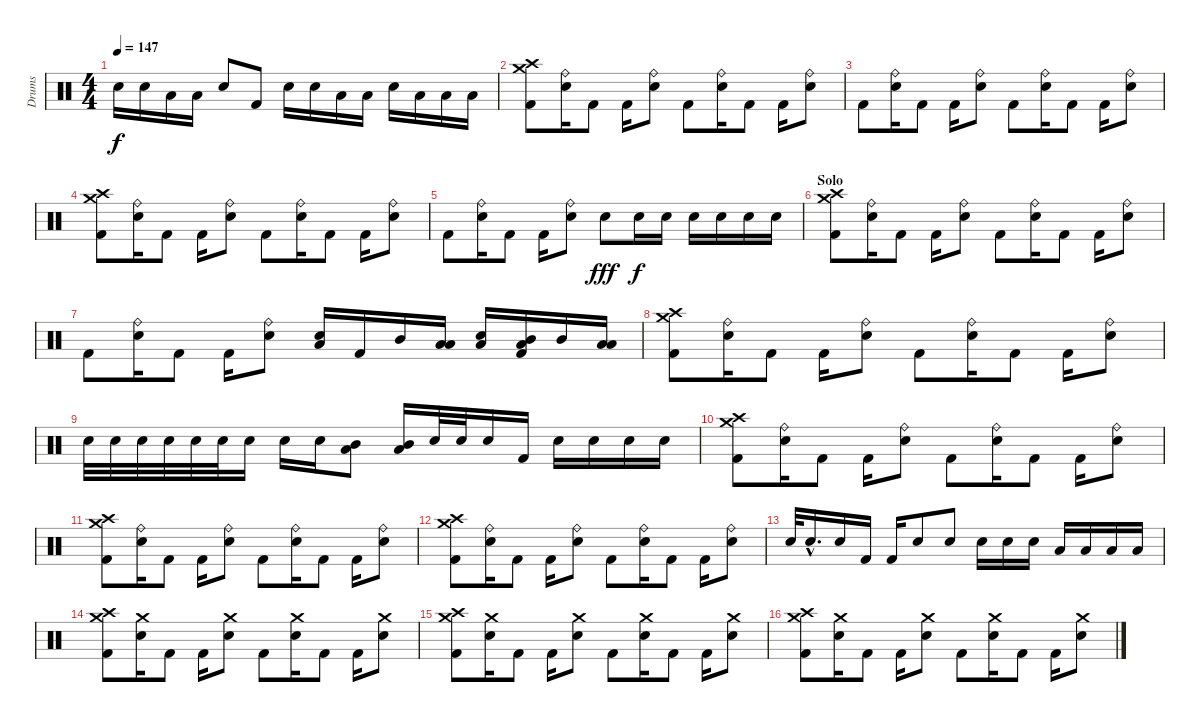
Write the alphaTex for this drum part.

\track ("Drums" "Drums") {instrument percussion}
\staff {score}
\articulation defaults
\ts (4 4)
\tempo 147
\clef neutral
\ks c "Electric Snare (hit)".16{dy f} "Electric Snare (hit)".16 "Low Tom (hit)".16 "Low Tom (hit)".16 "Electric Snare (hit)".8 "Kick (hit) 2".8 "Electric Snare (hit)".16 "Electric Snare (hit)".16 "Low Tom (hit)".16 "Low Tom (hit)".16 "Electric Snare (hit)".16 "Low Tom (hit)".16 "Low Tom (hit)".16 "Low Tom (hit)".16
|
("Crash high (hit)" "Crash medium (hit)" "Kick (hit) 2").8 ("Ride (bell)" "Electric Snare (hit)").16 "Kick (hit) 2".8 "Kick (hit) 2".16 ("Ride (bell)" "Electric Snare (hit)").8 "Kick (hit) 2".8 ("Ride (bell)" "Electric Snare (hit)").16 "Kick (hit) 2".8 "Kick (hit) 2".16 ("Ride (bell)" "Electric Snare (hit)").8 |
"Kick (hit) 2".8 ("Ride (bell)" "Electric Snare (hit)").16 "Kick (hit) 2".8 "Kick (hit) 2".16 ("Ride (bell)" "Electric Snare (hit)").8 "Kick (hit) 2".8 ("Ride (bell)" "Electric Snare (hit)").16 "Kick (hit) 2".8 "Kick (hit) 2".16 ("Ride (bell)" "Electric Snare (hit)").8 |
("Crash high (hit)" "Crash medium (hit)" "Kick (hit) 2").8 ("Ride (bell)" "Electric Snare (hit)").16 "Kick (hit) 2".8 "Kick (hit) 2".16 ("Ride (bell)" "Electric Snare (hit)").8 "Kick (hit) 2".8 ("Ride (bell)" "Electric Snare (hit)").16 "Kick (hit) 2".8 "Kick (hit) 2".16 ("Ride (bell)" "Electric Snare (hit)").8 |
"Kick (hit) 2".8 ("Ride (bell)" "Electric Snare (hit)").16 "Kick (hit) 2".8 "Kick (hit) 2".16 ("Ride (bell)" "Electric Snare (hit)").8 "Electric Snare (hit)".8{dy fff} "Electric Snare (hit)".16{dy f} "Electric Snare (hit)".16 "Electric Snare (hit)".16 "Electric Snare (hit)".16 "Electric Snare (hit)".16 "Electric Snare (hit)".16 |
\section ("" "Solo")
("Crash high (hit)" "Crash medium (hit)" "Kick (hit) 2").8 ("Ride (bell)" "Electric Snare (hit)").16 "Kick (hit) 2".8 "Kick (hit) 2".16 ("Ride (bell)" "Electric Snare (hit)").8 "Kick (hit) 2".8 ("Ride (bell)" "Electric Snare (hit)").16 "Kick (hit) 2".8 "Kick (hit) 2".16 ("Ride (bell)" "Electric Snare (hit)").8 |
"Kick (hit) 2".8 ("Ride (bell)" "Electric Snare (hit)").16 "Kick (hit) 2".8 "Kick (hit) 2".16 ("Ride (bell)" "Electric Snare (hit)").8 ("Low Floor Tom (hit)" "Electric Snare (hit)").16 "Kick (hit) 2".16 "Mid Tom (hit)".16 ("Low Floor Tom (hit)" "Low Tom (hit)").16 ("Low Floor Tom (hit)" "Electric Snare (hit)").16 ("Low Floor Tom (hit)" "Mid Tom (hit)" "Kick (hit) 2").16 "Mid Tom (hit)".16 ("Low Floor Tom (hit)" "Low Tom (hit)").16 |
("Crash high (hit)" "Crash medium (hit)" "Kick (hit) 2").8 ("Ride (bell)" "Electric Snare (hit)").16 "Kick (hit) 2".8 "Kick (hit) 2".16 ("Ride (bell)" "Electric Snare (hit)").8 "Kick (hit) 2".8 ("Ride (bell)" "Electric Snare (hit)").16 "Kick (hit) 2".8 "Kick (hit) 2".16 ("Ride (bell)" "Electric Snare (hit)").8 |
"Electric Snare (hit)".32 "Electric Snare (hit)".32 "Electric Snare (hit)".32 "Electric Snare (hit)".32 "Electric Snare (hit)".32 "Electric Snare (hit)".32 "Electric Snare (hit)".16 "Electric Snare (hit)".16 "Electric Snare (hit)".16 ("Low Floor Tom (hit)" "Mid Tom (hit)").8 ("Low Floor Tom (hit)" "Mid Tom (hit)").16 "Electric Snare (hit)".32 "Electric Snare (hit)".32 "Electric Snare (hit)".16 "Kick (hit) 2".16 "Electric Snare (hit)".16 "Electric Snare (hit)".16 "Electric Snare (hit)".16 "Electric Snare (hit)".16 |
("Crash high (hit)" "Crash medium (hit)" "Kick (hit) 2").8 ("Ride (bell)" "Electric Snare (hit)").16 "Kick (hit) 2".8 "Kick (hit) 2".16 ("Ride (bell)" "Electric Snare (hit)").8 "Kick (hit) 2".8 ("Ride (bell)" "Electric Snare (hit)").16 "Kick (hit) 2".8 "Kick (hit) 2".16 ("Ride (bell)" "Electric Snare (hit)").8 |
("Crash high (hit)" "Crash medium (hit)" "Kick (hit) 2").8 ("Ride (bell)" "Electric Snare (hit)").16 "Kick (hit) 2".8 "Kick (hit) 2".16 ("Ride (bell)" "Electric Snare (hit)").8 "Kick (hit) 2".8 ("Ride (bell)" "Electric Snare (hit)").16 "Kick (hit) 2".8 "Kick (hit) 2".16 ("Ride (bell)" "Electric Snare (hit)").8 |
("Crash high (hit)" "Crash medium (hit)" "Kick (hit) 2").8 ("Ride (bell)" "Electric Snare (hit)").16 "Kick (hit) 2".8 "Kick (hit) 2".16 ("Ride (bell)" "Electric Snare (hit)").8 "Kick (hit) 2".8 ("Ride (bell)" "Electric Snare (hit)").16 "Kick (hit) 2".8 "Kick (hit) 2".16 ("Ride (bell)" "Electric Snare (hit)").8 |
"Electric Snare (hit)".32 "Electric Snare (hit)"{hac}.16{d} "Electric Snare (hit)".16 "Kick (hit) 2".16 "Kick (hit) 2".16 "Electric Snare (hit)".8 "Electric Snare (hit)".8 "Electric Snare (hit)".16 "Electric Snare (hit)".16 "Electric Snare (hit)".16 "Low Tom (hit)".16 "Low Tom (hit)".16 "Low Tom (hit)".16 "Low Tom (hit)".16 |
("Crash high (hit)" "Crash medium (hit)" "Kick (hit) 2").8 ("Crash medium (hit)" "Electric Snare (hit)").16 "Kick (hit) 2".8 "Kick (hit) 2".16 ("Crash medium (hit)" "Electric Snare (hit)").8 "Kick (hit) 2".8 ("Crash medium (hit)" "Electric Snare (hit)").16 "Kick (hit) 2".8 "Kick (hit) 2".16 ("Crash medium (hit)" "Electric Snare (hit)").8 |
("Crash high (hit)" "Crash medium (hit)" "Kick (hit) 2").8 ("Crash medium (hit)" "Electric Snare (hit)").16 "Kick (hit) 2".8 "Kick (hit) 2".16 ("Crash medium (hit)" "Electric Snare (hit)").8 "Kick (hit) 2".8 ("Crash medium (hit)" "Electric Snare (hit)").16 "Kick (hit) 2".8 "Kick (hit) 2".16 ("Crash medium (hit)" "Electric Snare (hit)").8 |
("Crash high (hit)" "Crash medium (hit)" "Kick (hit) 2").8 ("Crash medium (hit)" "Electric Snare (hit)").16 "Kick (hit) 2".8 "Kick (hit) 2".16 ("Crash medium (hit)" "Electric Snare (hit)").8 "Kick (hit) 2".8 ("Crash medium (hit)" "Electric Snare (hit)").16 "Kick (hit) 2".8 "Kick (hit) 2".16 ("Crash medium (hit)" "Electric Snare (hit)").8
